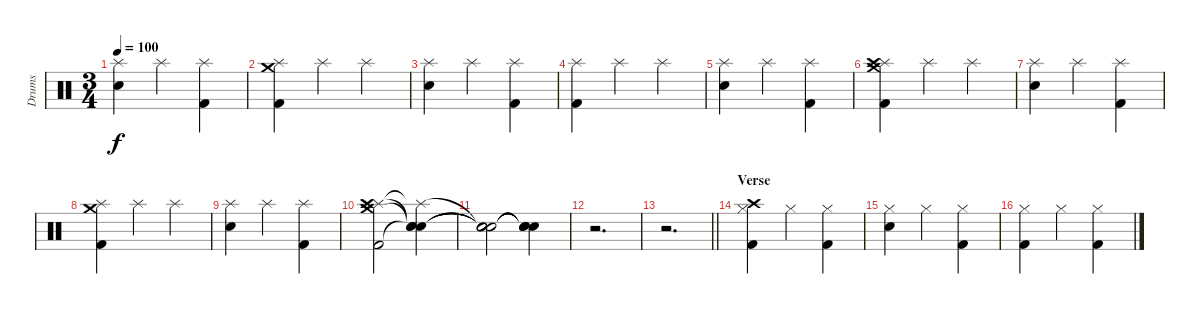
\track ("Drums" "Drums") {instrument percussion}
\staff {score}
\articulation defaults
\ts (3 4)
\tempo 100
\clef neutral
\ks c
("Splash (hit)" "Electric Snare (hit)").4{dy f} "Splash (hit)".4 ("Splash (hit)" "Kick (hit) 2").4 |
("Splash (hit)" "Crash medium (hit)" "Kick (hit) 2").4 "Splash (hit)".4 "Splash (hit)".4 |
("Splash (hit)" "Electric Snare (hit)").4 "Splash (hit)".4 ("Splash (hit)" "Kick (hit) 2").4 |
("Splash (hit)" "Kick (hit) 2").4 "Splash (hit)".4 "Splash (hit)".4 |
("Splash (hit)" "Electric Snare (hit)").4 "Splash (hit)".4 ("Splash (hit)" "Kick (hit) 2").4 |
("Splash (hit)" "Crash high (hit)" "Crash medium (hit)" "Kick (hit) 2").4 "Splash (hit)".4 "Splash (hit)".4 |
("Splash (hit)" "Electric Snare (hit)").4 "Splash (hit)".4 ("Splash (hit)" "Kick (hit) 2").4 |
("Splash (hit)" "Crash medium (hit)" "Kick (hit) 2").4 "Splash (hit)".4 "Splash (hit)".4 |
("Splash (hit)" "Electric Snare (hit)").4 "Splash (hit)".4 ("Splash (hit)" "Kick (hit) 2").4 |
("Splash (hit)" "Crash medium (hit)" "Crash high (hit)" "Kick (hit) 2").2 ("Splash (hit)"{t} "Snare (hit)"{t} "Snare (hit)"{t} "Snare (hit)"{t}).4 |
("Snare (hit)"{t} "Snare (hit)"{t} "Snare (hit)"{t} "Snare (hit)"{t}).2 ("Snare (hit)"{t} "Snare (hit)"{t} "Snare (hit)"{t} "Snare (hit)"{t}).4 |
r.2{d} |
\barLineRight lightlight
r.2{d} |
\section ("" "Verse")
("Hi-Hat (closed)" "Crash high (hit)" "Kick (hit) 2").4 "Hi-Hat (closed)".4 ("Hi-Hat (closed)" "Kick (hit) 2").4 |
("Hi-Hat (closed)" "Electric Snare (hit)").4 "Hi-Hat (closed)".4 ("Hi-Hat (closed)" "Kick (hit) 2").4 |
("Hi-Hat (closed)" "Kick (hit) 2").4 "Hi-Hat (closed)".4 ("Hi-Hat (closed)" "Kick (hit) 2").4
